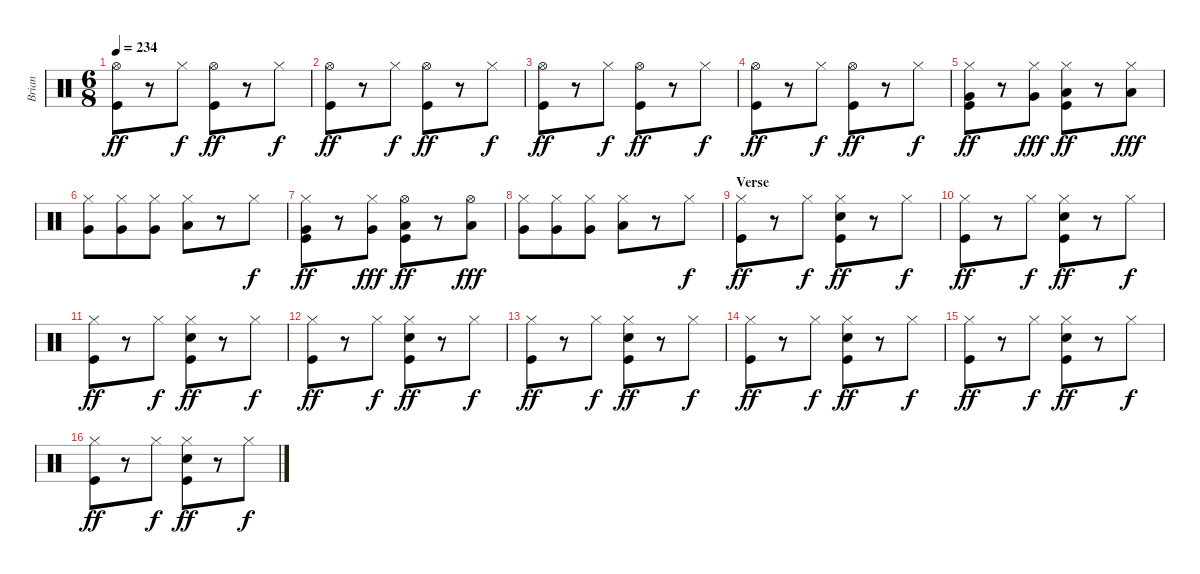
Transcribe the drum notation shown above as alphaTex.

\track ("Brian" "Brian") {instrument percussion}
\staff {score}
\articulation defaults
\ts (6 8)
\tempo 234
\clef neutral
\ks c
("Hi-Hat (open)" "Kick (hit)").8{dy ff} r.8 "Hi-Hat (closed)".8{dy f} ("Hi-Hat (open)" "Kick (hit)").8{dy ff} r.8 "Hi-Hat (closed)".8{dy f} |
("Hi-Hat (open)" "Kick (hit)").8{dy ff} r.8 "Hi-Hat (closed)".8{dy f} ("Hi-Hat (open)" "Kick (hit)").8{dy ff} r.8 "Hi-Hat (closed)".8{dy f} |
("Hi-Hat (open)" "Kick (hit)").8{dy ff} r.8 "Hi-Hat (closed)".8{dy f} ("Hi-Hat (open)" "Kick (hit)").8{dy ff} r.8 "Hi-Hat (closed)".8{dy f} |
("Hi-Hat (open)" "Kick (hit)").8{dy ff} r.8 "Hi-Hat (closed)".8{dy f} ("Hi-Hat (open)" "Kick (hit)").8{dy ff} r.8 "Hi-Hat (closed)".8{dy f} |
("Hi-Hat (closed)" "Very Low Tom (hit)" "Kick (hit)").8{dy ff} r.8 ("Hi-Hat (closed)" "Very Low Tom (hit)").8{dy fff} ("Hi-Hat (closed)" "Low Floor Tom (hit)" "Kick (hit)").8{dy ff} r.8 ("Hi-Hat (closed)" "Low Floor Tom (hit)").8{dy fff} |
("Hi-Hat (closed)" "Very Low Tom (hit)").8 ("Hi-Hat (closed)" "Very Low Tom (hit)").8 ("Hi-Hat (closed)" "Very Low Tom (hit)").8 ("Hi-Hat (closed)" "Low Floor Tom (hit)").8 r.8 "Hi-Hat (closed)".8{dy f} |
("Hi-Hat (closed)" "Very Low Tom (hit)" "Kick (hit)").8{dy ff} r.8 ("Hi-Hat (closed)" "Very Low Tom (hit)").8{dy fff} ("Hi-Hat (open)" "Low Floor Tom (hit)" "Kick (hit)").8{dy ff} r.8 ("Hi-Hat (open)" "Low Floor Tom (hit)").8{dy fff} |
("Hi-Hat (closed)" "Very Low Tom (hit)").8 ("Hi-Hat (closed)" "Very Low Tom (hit)").8 ("Hi-Hat (closed)" "Very Low Tom (hit)").8 ("Hi-Hat (closed)" "Low Floor Tom (hit)").8 r.8 "Hi-Hat (closed)".8{dy f} |
\section ("" "Verse")
("Hi-Hat (closed)" "Kick (hit)").8{dy ff} r.8 "Hi-Hat (closed)".8{dy f} ("Hi-Hat (closed)" "Electric Snare (hit)" "Kick (hit)").8{dy ff} r.8 "Hi-Hat (closed)".8{dy f} |
("Hi-Hat (closed)" "Kick (hit)").8{dy ff} r.8 "Hi-Hat (closed)".8{dy f} ("Hi-Hat (closed)" "Electric Snare (hit)" "Kick (hit)").8{dy ff} r.8 "Hi-Hat (closed)".8{dy f} |
("Hi-Hat (closed)" "Kick (hit)").8{dy ff} r.8 "Hi-Hat (closed)".8{dy f} ("Hi-Hat (closed)" "Electric Snare (hit)" "Kick (hit)").8{dy ff} r.8 "Hi-Hat (closed)".8{dy f} |
("Hi-Hat (closed)" "Kick (hit)").8{dy ff} r.8 "Hi-Hat (closed)".8{dy f} ("Hi-Hat (closed)" "Electric Snare (hit)" "Kick (hit)").8{dy ff} r.8 "Hi-Hat (closed)".8{dy f} |
("Hi-Hat (closed)" "Kick (hit)").8{dy ff} r.8 "Hi-Hat (closed)".8{dy f} ("Hi-Hat (closed)" "Electric Snare (hit)" "Kick (hit)").8{dy ff} r.8 "Hi-Hat (closed)".8{dy f} |
("Hi-Hat (closed)" "Kick (hit)").8{dy ff} r.8 "Hi-Hat (closed)".8{dy f} ("Hi-Hat (closed)" "Electric Snare (hit)" "Kick (hit)").8{dy ff} r.8 "Hi-Hat (closed)".8{dy f} |
("Hi-Hat (closed)" "Kick (hit)").8{dy ff} r.8 "Hi-Hat (closed)".8{dy f} ("Hi-Hat (closed)" "Electric Snare (hit)" "Kick (hit)").8{dy ff} r.8 "Hi-Hat (closed)".8{dy f} |
("Hi-Hat (closed)" "Kick (hit)").8{dy ff} r.8 "Hi-Hat (closed)".8{dy f} ("Hi-Hat (closed)" "Electric Snare (hit)" "Kick (hit)").8{dy ff} r.8 "Hi-Hat (closed)".8{dy f}
